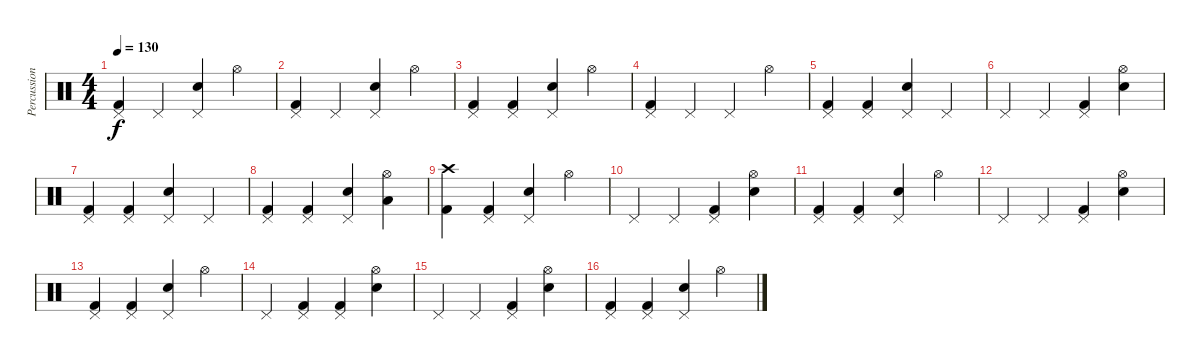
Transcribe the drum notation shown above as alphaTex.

\track ("Percussion" "Percussion") {instrument percussion}
\staff {score}
\articulation defaults
\ts (4 4)
\tempo 130
\clef neutral
\ks c
("Pedal Hi-Hat (hit)" "Kick (hit) 2").4{dy f} "Pedal Hi-Hat (hit)".4 ("Pedal Hi-Hat (hit)" "Electric Snare (hit)").4 "Hi-Hat (open)".4 |
("Pedal Hi-Hat (hit)" "Kick (hit) 2").4 "Pedal Hi-Hat (hit)".4 ("Pedal Hi-Hat (hit)" "Electric Snare (hit)").4 "Hi-Hat (open)".4 |
("Pedal Hi-Hat (hit)" "Kick (hit) 2").4 ("Pedal Hi-Hat (hit)" "Kick (hit) 2").4 ("Pedal Hi-Hat (hit)" "Electric Snare (hit)").4 "Hi-Hat (open)".4 |
("Pedal Hi-Hat (hit)" "Kick (hit) 2").4 "Pedal Hi-Hat (hit)".4 "Pedal Hi-Hat (hit)".4 "Hi-Hat (open)".4 |
("Pedal Hi-Hat (hit)" "Kick (hit) 2").4 ("Pedal Hi-Hat (hit)" "Kick (hit) 2").4 ("Pedal Hi-Hat (hit)" "Electric Snare (hit)").4 "Pedal Hi-Hat (hit)".4 |
"Pedal Hi-Hat (hit)".4 "Pedal Hi-Hat (hit)".4 ("Pedal Hi-Hat (hit)" "Kick (hit) 2").4 ("Hi-Hat (open)" "Electric Snare (hit)").4 |
("Pedal Hi-Hat (hit)" "Kick (hit) 2").4 ("Pedal Hi-Hat (hit)" "Kick (hit) 2").4 ("Pedal Hi-Hat (hit)" "Electric Snare (hit)").4 "Pedal Hi-Hat (hit)".4 |
("Pedal Hi-Hat (hit)" "Kick (hit) 2").4 ("Pedal Hi-Hat (hit)" "Kick (hit) 2").4 ("Pedal Hi-Hat (hit)" "Electric Snare (hit)").4 ("Hi-Hat (open)" "Low Tom (hit)").4 |
("Crash high (hit)" "Kick (hit) 2").4 ("Pedal Hi-Hat (hit)" "Kick (hit) 2").4 ("Pedal Hi-Hat (hit)" "Electric Snare (hit)").4 "Hi-Hat (open)".4 |
"Pedal Hi-Hat (hit)".4 "Pedal Hi-Hat (hit)".4 ("Pedal Hi-Hat (hit)" "Kick (hit) 2").4 ("Hi-Hat (open)" "Electric Snare (hit)").4 |
("Pedal Hi-Hat (hit)" "Kick (hit) 2").4 ("Pedal Hi-Hat (hit)" "Kick (hit) 2").4 ("Pedal Hi-Hat (hit)" "Electric Snare (hit)").4 "Hi-Hat (open)".4 |
"Pedal Hi-Hat (hit)".4 "Pedal Hi-Hat (hit)".4 ("Pedal Hi-Hat (hit)" "Kick (hit) 2").4 ("Hi-Hat (open)" "Electric Snare (hit)").4 |
("Pedal Hi-Hat (hit)" "Kick (hit) 2").4 ("Pedal Hi-Hat (hit)" "Kick (hit) 2").4 ("Pedal Hi-Hat (hit)" "Electric Snare (hit)").4 "Hi-Hat (open)".4 |
"Pedal Hi-Hat (hit)".4 ("Pedal Hi-Hat (hit)" "Kick (hit) 2").4 ("Pedal Hi-Hat (hit)" "Kick (hit) 2").4 ("Hi-Hat (open)" "Electric Snare (hit)").4 |
"Pedal Hi-Hat (hit)".4 "Pedal Hi-Hat (hit)".4 ("Pedal Hi-Hat (hit)" "Kick (hit) 2").4 ("Hi-Hat (open)" "Electric Snare (hit)").4 |
("Pedal Hi-Hat (hit)" "Kick (hit) 2").4 ("Pedal Hi-Hat (hit)" "Kick (hit) 2").4 ("Pedal Hi-Hat (hit)" "Electric Snare (hit)").4 "Hi-Hat (open)".4
